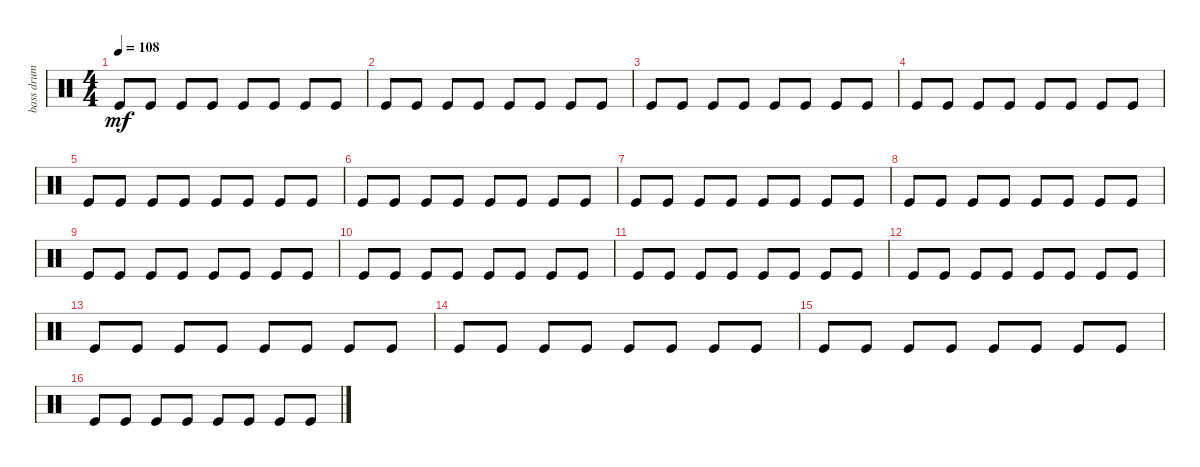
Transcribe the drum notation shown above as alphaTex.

\track ("bass drum           " "bass drum ") {instrument percussion}
\staff {score}
\articulation defaults
\ts (4 4)
\tempo 108
\clef neutral
\ks c "Kick (hit)".8{dy mf} "Kick (hit)".8 "Kick (hit)".8 "Kick (hit)".8 "Kick (hit)".8 "Kick (hit)".8 "Kick (hit)".8 "Kick (hit)".8
|
"Kick (hit)".8 "Kick (hit)".8 "Kick (hit)".8 "Kick (hit)".8 "Kick (hit)".8 "Kick (hit)".8 "Kick (hit)".8 "Kick (hit)".8 |
"Kick (hit)".8 "Kick (hit)".8 "Kick (hit)".8 "Kick (hit)".8 "Kick (hit)".8 "Kick (hit)".8 "Kick (hit)".8 "Kick (hit)".8 |
"Kick (hit)".8 "Kick (hit)".8 "Kick (hit)".8 "Kick (hit)".8 "Kick (hit)".8 "Kick (hit)".8 "Kick (hit)".8 "Kick (hit)".8 |
"Kick (hit)".8 "Kick (hit)".8 "Kick (hit)".8 "Kick (hit)".8 "Kick (hit)".8 "Kick (hit)".8 "Kick (hit)".8 "Kick (hit)".8 |
"Kick (hit)".8 "Kick (hit)".8 "Kick (hit)".8 "Kick (hit)".8 "Kick (hit)".8 "Kick (hit)".8 "Kick (hit)".8 "Kick (hit)".8 |
"Kick (hit)".8 "Kick (hit)".8 "Kick (hit)".8 "Kick (hit)".8 "Kick (hit)".8 "Kick (hit)".8 "Kick (hit)".8 "Kick (hit)".8 |
"Kick (hit)".8 "Kick (hit)".8 "Kick (hit)".8 "Kick (hit)".8 "Kick (hit)".8 "Kick (hit)".8 "Kick (hit)".8 "Kick (hit)".8 |
"Kick (hit)".8 "Kick (hit)".8 "Kick (hit)".8 "Kick (hit)".8 "Kick (hit)".8 "Kick (hit)".8 "Kick (hit)".8 "Kick (hit)".8 |
"Kick (hit)".8 "Kick (hit)".8 "Kick (hit)".8 "Kick (hit)".8 "Kick (hit)".8 "Kick (hit)".8 "Kick (hit)".8 "Kick (hit)".8 |
"Kick (hit)".8 "Kick (hit)".8 "Kick (hit)".8 "Kick (hit)".8 "Kick (hit)".8 "Kick (hit)".8 "Kick (hit)".8 "Kick (hit)".8 |
"Kick (hit)".8 "Kick (hit)".8 "Kick (hit)".8 "Kick (hit)".8 "Kick (hit)".8 "Kick (hit)".8 "Kick (hit)".8 "Kick (hit)".8 |
"Kick (hit)".8 "Kick (hit)".8 "Kick (hit)".8 "Kick (hit)".8 "Kick (hit)".8 "Kick (hit)".8 "Kick (hit)".8 "Kick (hit)".8 |
"Kick (hit)".8 "Kick (hit)".8 "Kick (hit)".8 "Kick (hit)".8 "Kick (hit)".8 "Kick (hit)".8 "Kick (hit)".8 "Kick (hit)".8 |
"Kick (hit)".8 "Kick (hit)".8 "Kick (hit)".8 "Kick (hit)".8 "Kick (hit)".8 "Kick (hit)".8 "Kick (hit)".8 "Kick (hit)".8 |
"Kick (hit)".8{volume 10} "Kick (hit)".8 "Kick (hit)".8 "Kick (hit)".8{volume 10} "Kick (hit)".8 "Kick (hit)".8 "Kick (hit)".8 "Kick (hit)".8
